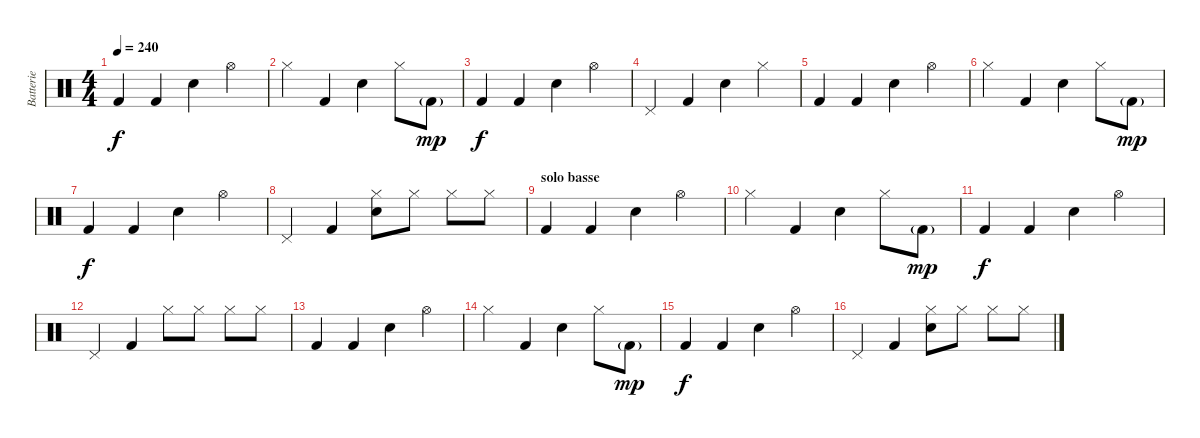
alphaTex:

\track ("Batterie" "Batterie") {instrument percussion}
\staff {score}
\articulation defaults
\ts (4 4)
\tempo 240
\clef neutral
\ks c "Kick (hit) 2".4{dy f} "Kick (hit) 2".4 "Snare (hit) 2".4 "Hi-Hat (open)".4
|
"Hi-Hat (closed)".4 "Kick (hit) 2".4 "Snare (hit) 2".4 "Hi-Hat (closed)".8 "Kick (hit) 2"{g}.8{dy mp} |
"Kick (hit) 2".4{dy f} "Kick (hit) 2".4 "Snare (hit) 2".4 "Hi-Hat (open)".4 |
"Pedal Hi-Hat (hit)".4 "Kick (hit) 2".4 "Snare (hit) 2".4 "Hi-Hat (closed)".4 |
"Kick (hit) 2".4 "Kick (hit) 2".4 "Snare (hit) 2".4 "Hi-Hat (open)".4 |
"Hi-Hat (closed)".4 "Kick (hit) 2".4 "Snare (hit) 2".4 "Hi-Hat (closed)".8 "Kick (hit) 2"{g}.8{dy mp} |
"Kick (hit) 2".4{dy f} "Kick (hit) 2".4 "Snare (hit) 2".4 "Hi-Hat (open)".4 |
"Pedal Hi-Hat (hit)".4 "Kick (hit) 2".4 ("Hi-Hat (closed)" "Snare (hit) 2").8 "Hi-Hat (closed)".8 "Hi-Hat (closed)".8 "Hi-Hat (closed)".8 |
\section ("" "solo basse")
"Kick (hit) 2".4 "Kick (hit) 2".4 "Snare (hit) 2".4 "Hi-Hat (open)".4 |
"Hi-Hat (closed)".4 "Kick (hit) 2".4 "Snare (hit) 2".4 "Hi-Hat (closed)".8 "Kick (hit) 2"{g}.8{dy mp} |
"Kick (hit) 2".4{dy f} "Kick (hit) 2".4 "Snare (hit) 2".4 "Hi-Hat (open)".4 |
"Pedal Hi-Hat (hit)".4 "Kick (hit) 2".4 "Hi-Hat (closed)".8 "Hi-Hat (closed)".8 "Hi-Hat (closed)".8 "Hi-Hat (closed)".8 |
"Kick (hit) 2".4 "Kick (hit) 2".4 "Snare (hit) 2".4 "Hi-Hat (open)".4 |
"Hi-Hat (closed)".4 "Kick (hit) 2".4 "Snare (hit) 2".4 "Hi-Hat (closed)".8 "Kick (hit) 2"{g}.8{dy mp} |
"Kick (hit) 2".4{dy f} "Kick (hit) 2".4 "Snare (hit) 2".4 "Hi-Hat (open)".4 |
"Pedal Hi-Hat (hit)".4 "Kick (hit) 2".4 ("Hi-Hat (closed)" "Snare (hit) 2").8 "Hi-Hat (closed)".8 "Hi-Hat (closed)".8 "Hi-Hat (closed)".8
